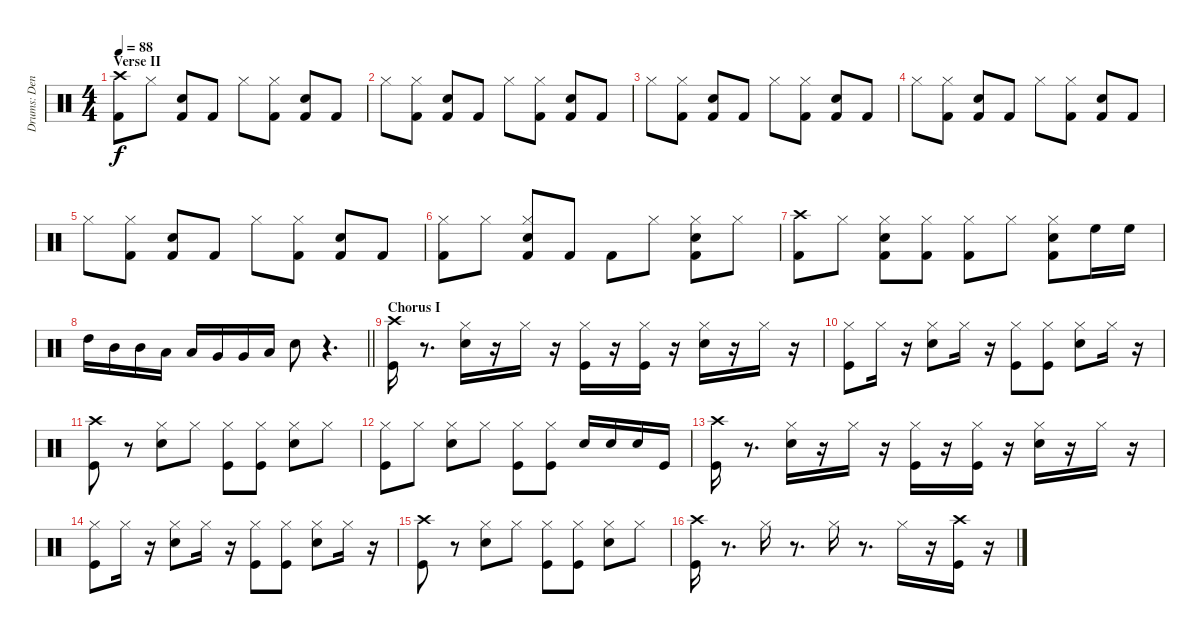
\track ("Drums: Denny Carmassi" "Drums: Den") {instrument percussion}
\staff {score}
\articulation defaults
\ts (4 4)
\section ("" "Verse II")
\tempo 88
\clef neutral
\ks c
("Crash high (hit)" "Kick (hit) 2").8{dy f} "Hi-Hat (closed)".8 ("Snare (hit) 2" "Kick (hit) 2").8 "Kick (hit) 2".8 "Hi-Hat (closed)".8 ("Hi-Hat (closed)" "Kick (hit) 2").8 ("Snare (hit) 2" "Kick (hit) 2").8 "Kick (hit) 2".8 |
"Hi-Hat (closed)".8 ("Hi-Hat (closed)" "Kick (hit) 2").8 ("Snare (hit) 2" "Kick (hit) 2").8 "Kick (hit) 2".8 "Hi-Hat (closed)".8 ("Hi-Hat (closed)" "Kick (hit) 2").8 ("Snare (hit) 2" "Kick (hit) 2").8 "Kick (hit) 2".8 |
"Hi-Hat (closed)".8 ("Hi-Hat (closed)" "Kick (hit) 2").8 ("Snare (hit) 2" "Kick (hit) 2").8 "Kick (hit) 2".8 "Hi-Hat (closed)".8 ("Hi-Hat (closed)" "Kick (hit) 2").8 ("Snare (hit) 2" "Kick (hit) 2").8 "Kick (hit) 2".8 |
"Hi-Hat (closed)".8 ("Hi-Hat (closed)" "Kick (hit) 2").8 ("Snare (hit) 2" "Kick (hit) 2").8 "Kick (hit) 2".8 "Hi-Hat (closed)".8 ("Hi-Hat (closed)" "Kick (hit) 2").8 ("Snare (hit) 2" "Kick (hit) 2").8 "Kick (hit) 2".8 |
"Hi-Hat (closed)".8 ("Hi-Hat (closed)" "Kick (hit) 2").8 ("Snare (hit) 2" "Kick (hit) 2").8 "Kick (hit) 2".8 "Hi-Hat (closed)".8 ("Hi-Hat (closed)" "Kick (hit) 2").8 ("Snare (hit) 2" "Kick (hit) 2").8 "Kick (hit) 2".8 |
("Hi-Hat (closed)" "Kick (hit) 2").8 "Hi-Hat (closed)".8 ("Hi-Hat (closed)" "Snare (hit) 2" "Kick (hit) 2").8 "Kick (hit) 2".8 "Kick (hit) 2".8 "Hi-Hat (closed)".8 ("Hi-Hat (closed)" "Snare (hit) 2" "Kick (hit) 2").8 "Hi-Hat (closed)".8 |
("Crash high (hit)" "Kick (hit) 2").8 "Hi-Hat (closed)".8 ("Hi-Hat (closed)" "Snare (hit) 2" "Kick (hit) 2").8 ("Hi-Hat (closed)" "Kick (hit) 2").8 ("Hi-Hat (closed)" "Kick (hit) 2").8 "Hi-Hat (closed)".8 ("Hi-Hat (closed)" "Snare (hit) 2" "Kick (hit) 2").8 "High Floor Tom (hit)".16 "High Floor Tom (hit)".16 |
\barLineRight lightlight "High Tom (hit)".16 "Mid Tom (hit)".16 "Mid Tom (hit)".16 "Low Tom (hit)".16 "Low Tom (hit)".16 "Very Low Tom (hit)".16 "Very Low Tom (hit)".16 "Low Floor Tom (hit)".16 "Snare (hit) 2".8
r.4{d} |
\section ("" "Chorus I")
("Crash high (hit)" "Kick (hit)").16 r.8{d} ("Hi-Hat (closed)" "Electric Snare (hit)").16 r.16 "Hi-Hat (closed)".16 r.16 ("Hi-Hat (closed)" "Kick (hit)").16 r.16 ("Hi-Hat (closed)" "Kick (hit)").16 r.16 ("Hi-Hat (closed)" "Electric Snare (hit)").16 r.16 "Hi-Hat (closed)".16 r.16 |
("Kick (hit)" "Hi-Hat (closed)").8 "Hi-Hat (closed)".16 r.16 ("Electric Snare (hit)" "Hi-Hat (closed)").8 "Hi-Hat (closed)".16 r.16 ("Kick (hit)" "Hi-Hat (closed)").8 ("Kick (hit)" "Hi-Hat (closed)").8 ("Electric Snare (hit)" "Hi-Hat (closed)").8 "Hi-Hat (closed)".16 r.16 |
("Kick (hit)" "Crash high (hit)").8 r.8 ("Electric Snare (hit)" "Hi-Hat (closed)").8 "Hi-Hat (closed)".8 ("Kick (hit)" "Hi-Hat (closed)").8 ("Kick (hit)" "Hi-Hat (closed)").8 ("Electric Snare (hit)" "Hi-Hat (closed)").8 "Hi-Hat (closed)".8 |
("Kick (hit)" "Hi-Hat (closed)").8 "Hi-Hat (closed)".8 ("Electric Snare (hit)" "Hi-Hat (closed)").8 "Hi-Hat (closed)".8 ("Kick (hit)" "Hi-Hat (closed)").8 ("Kick (hit)" "Hi-Hat (closed)").8 "Electric Snare (hit)".16 "Electric Snare (hit)".16 "Electric Snare (hit)".16 "Kick (hit)".16 |
("Kick (hit)" "Crash high (hit)").16 r.8{d} ("Electric Snare (hit)" "Hi-Hat (closed)").16 r.16 "Hi-Hat (closed)".16 r.16 ("Kick (hit)" "Hi-Hat (closed)").16 r.16 ("Kick (hit)" "Hi-Hat (closed)").16 r.16 ("Electric Snare (hit)" "Hi-Hat (closed)").16 r.16 "Hi-Hat (closed)".16 r.16 |
("Hi-Hat (closed)" "Kick (hit)").8 "Hi-Hat (closed)".16 r.16 ("Hi-Hat (closed)" "Electric Snare (hit)").8 "Hi-Hat (closed)".16 r.16 ("Hi-Hat (closed)" "Kick (hit)").8 ("Hi-Hat (closed)" "Kick (hit)").8 ("Hi-Hat (closed)" "Electric Snare (hit)").8 "Hi-Hat (closed)".16 r.16 |
("Crash high (hit)" "Kick (hit)").8 r.8 ("Hi-Hat (closed)" "Electric Snare (hit)").8 "Hi-Hat (closed)".8 ("Hi-Hat (closed)" "Kick (hit)").8 ("Hi-Hat (closed)" "Kick (hit)").8 ("Hi-Hat (closed)" "Electric Snare (hit)").8 "Hi-Hat (closed)".8 |
("Kick (hit)" "Crash high (hit)").16 r.8{d} "Hi-Hat (closed)".16 r.8{d} "Hi-Hat (closed)".16 r.8{d} "Hi-Hat (closed)".16 r.16 ("Kick (hit)" "Crash high (hit)").16 r.16
